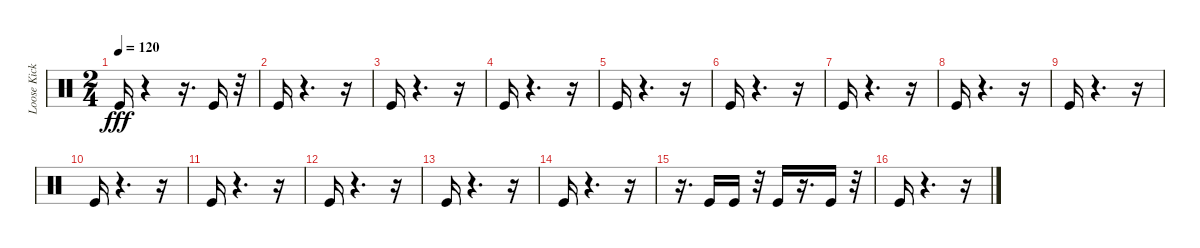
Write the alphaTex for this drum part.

\track ("Loose Kick (1) (1) (1) (1)" "Loose Kick") {instrument percussion}
\staff {score}
\articulation defaults
\ts (2 4)
\tempo 120
\clef neutral
\ks c "Kick (hit)".16{dy fff}
r.4 r.16{d} "Kick (hit)".16 r.32 |
"Kick (hit)".16 r.4{d} r.16 |
"Kick (hit)".16 r.4{d} r.16 |
"Kick (hit)".16 r.4{d} r.16 |
"Kick (hit)".16 r.4{d} r.16 |
"Kick (hit)".16 r.4{d} r.16 |
"Kick (hit)".16 r.4{d} r.16 |
"Kick (hit)".16 r.4{d} r.16 |
"Kick (hit)".16 r.4{d} r.16 |
"Kick (hit)".16 r.4{d} r.16 |
"Kick (hit)".16 r.4{d} r.16 |
"Kick (hit)".16 r.4{d} r.16 |
"Kick (hit)".16 r.4{d} r.16 |
"Kick (hit)".16 r.4{d} r.16 |
r.16{d} "Kick (hit)".16 "Kick (hit)".16 r.32 "Kick (hit)".16 r.16{d} "Kick (hit)".16 r.32 |
"Kick (hit)".16 r.4{d} r.16
